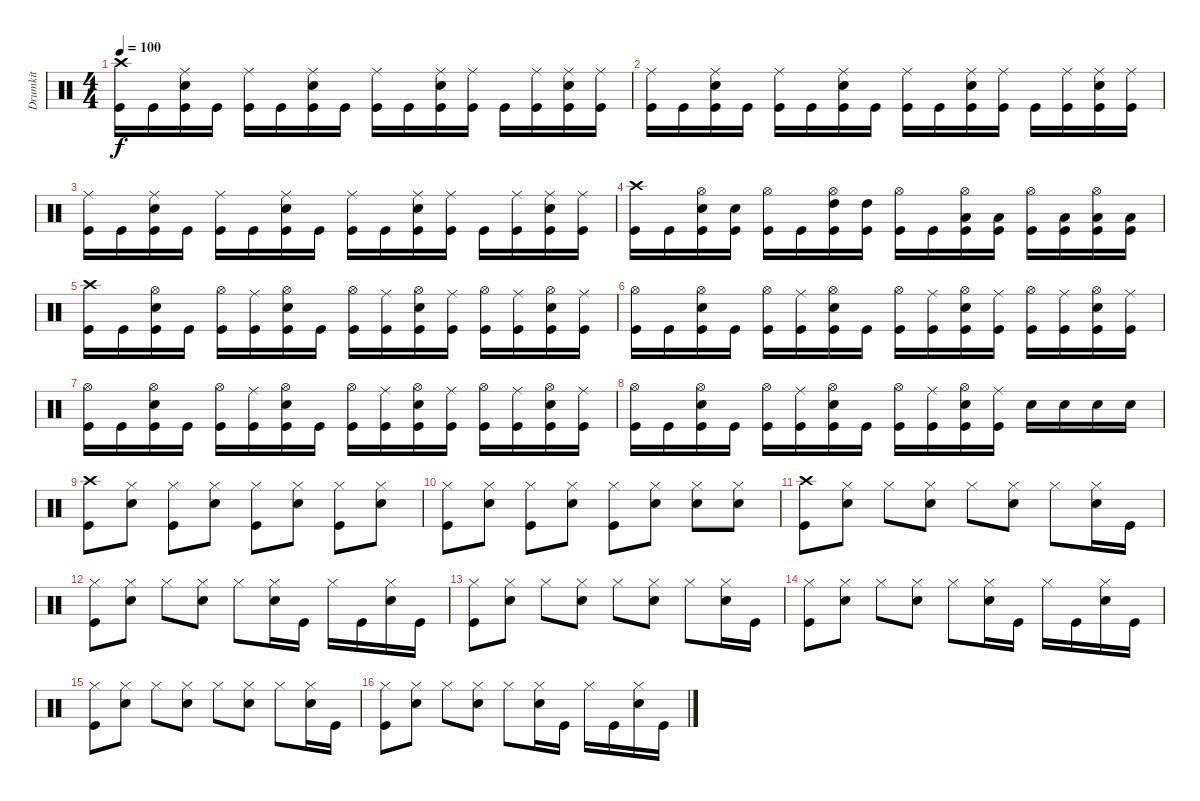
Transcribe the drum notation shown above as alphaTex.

\track ("Drumkit" "Drumkit") {instrument percussion}
\staff {score}
\articulation defaults
\ts (4 4)
\tempo 100
\clef neutral
\ks c
("Crash high (hit)" "Kick (hit)").16{dy f} "Kick (hit)".16 ("Ride (middle)" "Snare (hit) 2" "Kick (hit)").16 "Kick (hit)".16 ("Ride (middle)" "Kick (hit)").16 "Kick (hit)".16 ("Ride (middle)" "Snare (hit) 2" "Kick (hit)").16 "Kick (hit)".16 ("Ride (middle)" "Kick (hit)").16 "Kick (hit)".16 ("Ride (middle)" "Snare (hit) 2" "Kick (hit)").16 ("Ride (middle)" "Kick (hit)").16 "Kick (hit)".16 ("Ride (middle)" "Kick (hit)").16 ("Ride (middle)" "Snare (hit) 2" "Kick (hit)").16 ("Ride (middle)" "Kick (hit)").16 |
("Ride (middle)" "Kick (hit)").16 "Kick (hit)".16 ("Ride (middle)" "Snare (hit) 2" "Kick (hit)").16 "Kick (hit)".16 ("Ride (middle)" "Kick (hit)").16 "Kick (hit)".16 ("Ride (middle)" "Snare (hit) 2" "Kick (hit)").16 "Kick (hit)".16 ("Ride (middle)" "Kick (hit)").16 "Kick (hit)".16 ("Ride (middle)" "Snare (hit) 2" "Kick (hit)").16 ("Ride (middle)" "Kick (hit)").16 "Kick (hit)".16 ("Ride (middle)" "Kick (hit)").16 ("Ride (middle)" "Snare (hit) 2" "Kick (hit)").16 ("Ride (middle)" "Kick (hit)").16 |
("Ride (middle)" "Kick (hit)").16 "Kick (hit)".16 ("Ride (middle)" "Snare (hit) 2" "Kick (hit)").16 "Kick (hit)".16 ("Ride (middle)" "Kick (hit)").16 "Kick (hit)".16 ("Ride (middle)" "Snare (hit) 2" "Kick (hit)").16 "Kick (hit)".16 ("Ride (middle)" "Kick (hit)").16 "Kick (hit)".16 ("Ride (middle)" "Snare (hit) 2" "Kick (hit)").16 ("Ride (middle)" "Kick (hit)").16 "Kick (hit)".16 ("Ride (middle)" "Kick (hit)").16 ("Ride (middle)" "Snare (hit) 2" "Kick (hit)").16 ("Ride (middle)" "Kick (hit)").16 |
("Crash high (hit)" "Kick (hit)").16 "Kick (hit)".16 ("Hi-Hat (open)" "Snare (hit) 2" "Kick (hit)").16 ("Snare (hit) 2" "Kick (hit)").16 ("Hi-Hat (open)" "Kick (hit)").16 "Kick (hit)".16 ("High Tom (hit)" "Hi-Hat (open)" "Kick (hit)").16 ("High Tom (hit)" "Kick (hit)").16 ("Hi-Hat (open)" "Kick (hit)").16 "Kick (hit)".16 ("Low Tom (hit)" "Hi-Hat (open)" "Kick (hit)").16 ("Low Tom (hit)" "Kick (hit)").16 ("Hi-Hat (open)" "Kick (hit)").16 ("Low Floor Tom (hit)" "Kick (hit)").16 ("Low Floor Tom (hit)" "Hi-Hat (open)" "Kick (hit)").16 ("Low Floor Tom (hit)" "Kick (hit)").16 |
("Crash high (hit)" "Kick (hit)").16 "Kick (hit)".16 ("Hi-Hat (open)" "Snare (hit) 2" "Kick (hit)").16 "Kick (hit)".16 ("Hi-Hat (open)" "Kick (hit)").16 ("Ride (middle)" "Kick (hit)").16 ("Hi-Hat (open)" "Snare (hit) 2" "Kick (hit)").16 "Kick (hit)".16 ("Hi-Hat (open)" "Kick (hit)").16 ("Ride (middle)" "Kick (hit)").16 ("Hi-Hat (open)" "Snare (hit) 2" "Kick (hit)").16 ("Ride (middle)" "Kick (hit)").16 ("Hi-Hat (open)" "Kick (hit)").16 ("Ride (middle)" "Kick (hit)").16 ("Hi-Hat (open)" "Snare (hit) 2" "Kick (hit)").16 ("Ride (middle)" "Kick (hit)").16 |
("Hi-Hat (open)" "Kick (hit)").16 "Kick (hit)".16 ("Hi-Hat (open)" "Snare (hit) 2" "Kick (hit)").16 "Kick (hit)".16 ("Hi-Hat (open)" "Kick (hit)").16 ("Ride (middle)" "Kick (hit)").16 ("Hi-Hat (open)" "Snare (hit) 2" "Kick (hit)").16 "Kick (hit)".16 ("Hi-Hat (open)" "Kick (hit)").16 ("Ride (middle)" "Kick (hit)").16 ("Hi-Hat (open)" "Snare (hit) 2" "Kick (hit)").16 ("Ride (middle)" "Kick (hit)").16 ("Hi-Hat (open)" "Kick (hit)").16 ("Ride (middle)" "Kick (hit)").16 ("Hi-Hat (open)" "Snare (hit) 2" "Kick (hit)").16 ("Ride (middle)" "Kick (hit)").16 |
("Hi-Hat (open)" "Kick (hit)").16 "Kick (hit)".16 ("Hi-Hat (open)" "Snare (hit) 2" "Kick (hit)").16 "Kick (hit)".16 ("Hi-Hat (open)" "Kick (hit)").16 ("Ride (middle)" "Kick (hit)").16 ("Hi-Hat (open)" "Snare (hit) 2" "Kick (hit)").16 "Kick (hit)".16 ("Hi-Hat (open)" "Kick (hit)").16 ("Ride (middle)" "Kick (hit)").16 ("Hi-Hat (open)" "Snare (hit) 2" "Kick (hit)").16 ("Ride (middle)" "Kick (hit)").16 ("Hi-Hat (open)" "Kick (hit)").16 ("Ride (middle)" "Kick (hit)").16 ("Hi-Hat (open)" "Snare (hit) 2" "Kick (hit)").16 ("Ride (middle)" "Kick (hit)").16 |
("Hi-Hat (open)" "Kick (hit)").16 "Kick (hit)".16 ("Hi-Hat (open)" "Snare (hit) 2" "Kick (hit)").16 "Kick (hit)".16 ("Hi-Hat (open)" "Kick (hit)").16 ("Ride (middle)" "Kick (hit)").16 ("Hi-Hat (open)" "Snare (hit) 2" "Kick (hit)").16 "Kick (hit)".16 ("Hi-Hat (open)" "Kick (hit)").16 ("Ride (middle)" "Kick (hit)").16 ("Hi-Hat (open)" "Snare (hit) 2" "Kick (hit)").16 ("Ride (middle)" "Kick (hit)").16 "Snare (hit) 2".16 "Snare (hit) 2".16 "Snare (hit) 2".16 "Snare (hit) 2".16 |
("Crash high (hit)" "Kick (hit)").8 ("Hi-Hat (closed)" "Snare (hit) 2").8 ("Hi-Hat (closed)" "Kick (hit)").8 ("Hi-Hat (closed)" "Snare (hit) 2").8 ("Hi-Hat (closed)" "Kick (hit)").8 ("Hi-Hat (closed)" "Snare (hit) 2").8 ("Hi-Hat (closed)" "Kick (hit)").8 ("Hi-Hat (closed)" "Snare (hit) 2").8 |
("Hi-Hat (closed)" "Kick (hit)").8 ("Hi-Hat (closed)" "Snare (hit) 2").8 ("Hi-Hat (closed)" "Kick (hit)").8 ("Hi-Hat (closed)" "Snare (hit) 2").8 ("Hi-Hat (closed)" "Kick (hit)").8 ("Hi-Hat (closed)" "Snare (hit) 2").8 ("Hi-Hat (closed)" "Snare (hit) 2").8 ("Hi-Hat (closed)" "Snare (hit) 2").8 |
("Crash high (hit)" "Kick (hit)").8 ("Hi-Hat (closed)" "Snare (hit) 2").8 "Hi-Hat (closed)".8 ("Hi-Hat (closed)" "Snare (hit) 2").8 "Hi-Hat (closed)".8 ("Hi-Hat (closed)" "Snare (hit) 2").8 "Hi-Hat (closed)".8 ("Hi-Hat (closed)" "Snare (hit) 2").16 "Kick (hit)".16 |
("Hi-Hat (closed)" "Kick (hit)").8 ("Hi-Hat (closed)" "Snare (hit) 2").8 "Hi-Hat (closed)".8 ("Hi-Hat (closed)" "Snare (hit) 2").8 "Hi-Hat (closed)".8 ("Hi-Hat (closed)" "Snare (hit) 2").16 "Kick (hit)".16 "Hi-Hat (closed)".16 "Kick (hit)".16 ("Hi-Hat (closed)" "Snare (hit) 2").16 "Kick (hit)".16 |
("Hi-Hat (closed)" "Kick (hit)").8 ("Hi-Hat (closed)" "Snare (hit) 2").8 "Hi-Hat (closed)".8 ("Hi-Hat (closed)" "Snare (hit) 2").8 "Hi-Hat (closed)".8 ("Hi-Hat (closed)" "Snare (hit) 2").8 "Hi-Hat (closed)".8 ("Hi-Hat (closed)" "Snare (hit) 2").16 "Kick (hit)".16 |
("Hi-Hat (closed)" "Kick (hit)").8 ("Hi-Hat (closed)" "Snare (hit) 2").8 "Hi-Hat (closed)".8 ("Hi-Hat (closed)" "Snare (hit) 2").8 "Hi-Hat (closed)".8 ("Hi-Hat (closed)" "Snare (hit) 2").16 "Kick (hit)".16 "Hi-Hat (closed)".16 "Kick (hit)".16 ("Hi-Hat (closed)" "Snare (hit) 2").16 "Kick (hit)".16 |
("Hi-Hat (closed)" "Kick (hit)").8 ("Hi-Hat (closed)" "Snare (hit) 2").8 "Hi-Hat (closed)".8 ("Hi-Hat (closed)" "Snare (hit) 2").8 "Hi-Hat (closed)".8 ("Hi-Hat (closed)" "Snare (hit) 2").8 "Hi-Hat (closed)".8 ("Hi-Hat (closed)" "Snare (hit) 2").16 "Kick (hit)".16 |
("Hi-Hat (closed)" "Kick (hit)").8 ("Hi-Hat (closed)" "Snare (hit) 2").8 "Hi-Hat (closed)".8 ("Hi-Hat (closed)" "Snare (hit) 2").8 "Hi-Hat (closed)".8 ("Hi-Hat (closed)" "Snare (hit) 2").16 "Kick (hit)".16 "Hi-Hat (closed)".16 "Kick (hit)".16 ("Hi-Hat (closed)" "Snare (hit) 2").16 "Kick (hit)".16
